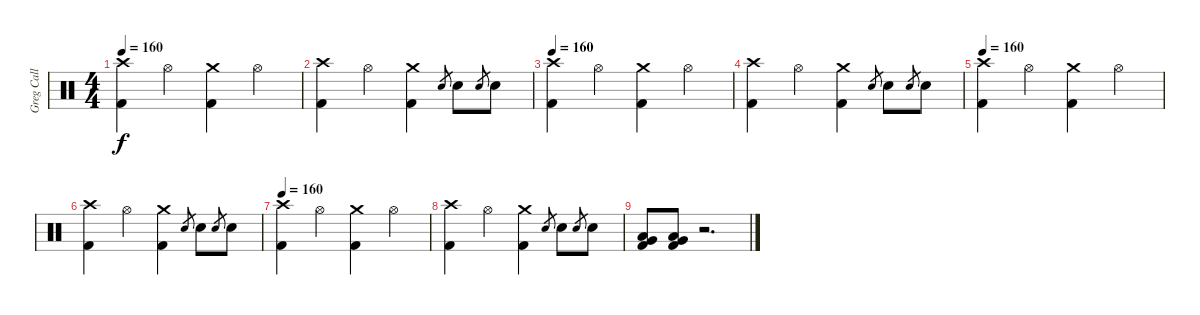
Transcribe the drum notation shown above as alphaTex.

\track ("Greg Call" "Greg Call") {instrument percussion}
\staff {score}
\articulation defaults
\ts (4 4)
\tempo 160
\clef neutral
\ks c
("Crash high (hit)" "Kick (hit) 2").4{dy f} "Hi-Hat (open)".4 ("Kick (hit) 2" "Crash medium (hit)").4 "Hi-Hat (open)".4 |
("Crash high (hit)" "Kick (hit) 2").4 "Hi-Hat (open)".4 ("Crash medium (hit)" "Kick (hit) 2").4 "Snare (hit) 2".8{gr} "Snare (hit) 2".8 "Snare (hit) 2".8{gr} "Snare (hit) 2".8 |
\tempo 160
("Crash high (hit)" "Kick (hit) 2").4 "Hi-Hat (open)".4 ("Kick (hit) 2" "Crash medium (hit)").4 "Hi-Hat (open)".4 |
("Crash high (hit)" "Kick (hit) 2").4 "Hi-Hat (open)".4 ("Crash medium (hit)" "Kick (hit) 2").4 "Snare (hit) 2".8{gr} "Snare (hit) 2".8 "Snare (hit) 2".8{gr} "Snare (hit) 2".8 |
\tempo 160
("Crash high (hit)" "Kick (hit) 2").4 "Hi-Hat (open)".4 ("Kick (hit) 2" "Crash medium (hit)").4 "Hi-Hat (open)".4 |
("Crash high (hit)" "Kick (hit) 2").4 "Hi-Hat (open)".4 ("Crash medium (hit)" "Kick (hit) 2").4 "Snare (hit) 2".8{gr} "Snare (hit) 2".8 "Snare (hit) 2".8{gr} "Snare (hit) 2".8 |
\tempo 152
\tempo 160
("Crash high (hit)" "Kick (hit) 2").4 "Hi-Hat (open)".4 ("Kick (hit) 2" "Crash medium (hit)").4 "Hi-Hat (open)".4 |
("Crash high (hit)" "Kick (hit) 2").4 "Hi-Hat (open)".4 ("Crash medium (hit)" "Kick (hit) 2").4 "Snare (hit) 2".8{gr} "Snare (hit) 2".8 "Snare (hit) 2".8{gr} "Snare (hit) 2".8 |
("Very Low Tom (hit)" "Low Floor Tom (hit)" "Kick (hit) 2").8 ("Very Low Tom (hit)" "Low Floor Tom (hit)" "Kick (hit) 2").8 r.2{d}
